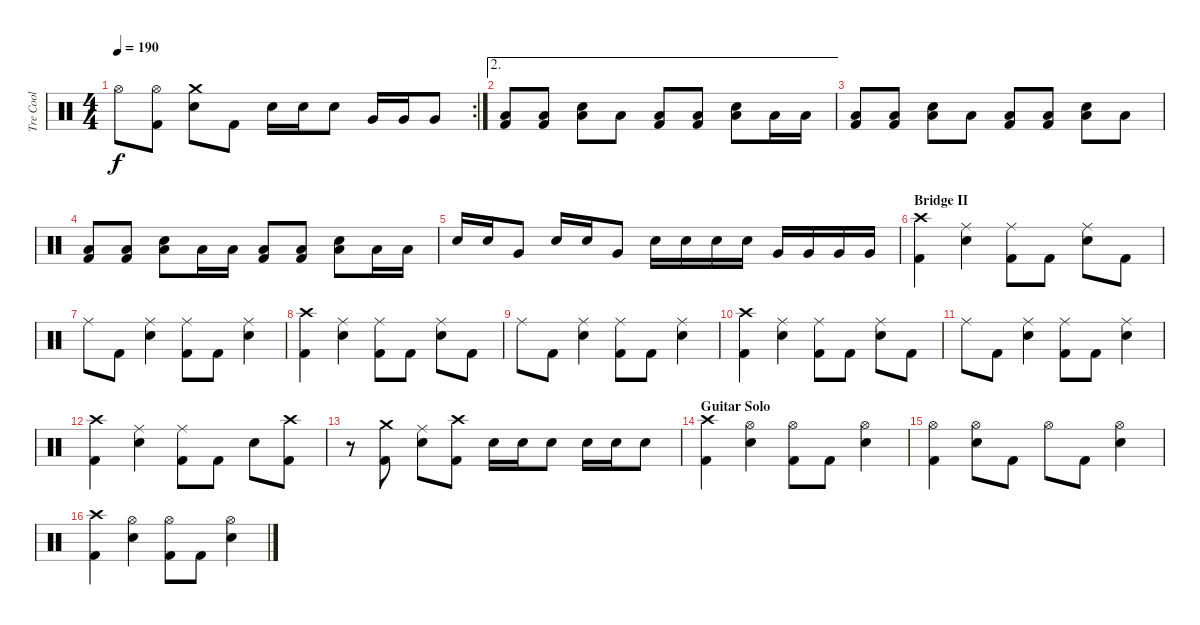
\track ("Tre Cool" "Tre Cool") {instrument percussion}
\staff {score}
\articulation defaults
\rc 2
\ts (4 4)
\tempo 190
\clef neutral
\ks c "Hi-Hat (open)".8{dy f}
("Hi-Hat (open)" "Kick (hit) 2").8 ("Crash medium (hit)" "Electric Snare (hit)").8 "Kick (hit) 2".8 "Snare (hit) 2".16 "Snare (hit) 2".16 "Snare (hit) 2".8 "Very Low Tom (hit)".16 "Very Low Tom (hit)".16 "Very Low Tom (hit)".8 |
\ae 2
("Low Tom (hit)" "Kick (hit) 2").8 ("Low Tom (hit)" "Kick (hit) 2").8 ("Low Tom (hit)" "Snare (hit) 2").8 "Low Tom (hit)".8 ("Low Tom (hit)" "Kick (hit) 2").8 ("Low Tom (hit)" "Kick (hit) 2").8 ("Low Tom (hit)" "Snare (hit) 2").8 "Low Tom (hit)".16 "Low Tom (hit)".16 |
("Low Tom (hit)" "Kick (hit) 2").8 ("Low Tom (hit)" "Kick (hit) 2").8 ("Low Tom (hit)" "Snare (hit) 2").8 "Low Tom (hit)".8 ("Low Tom (hit)" "Kick (hit) 2").8 ("Low Tom (hit)" "Kick (hit) 2").8 ("Low Tom (hit)" "Snare (hit) 2").8 "Low Tom (hit)".8 |
("Low Tom (hit)" "Kick (hit) 2").8 ("Low Tom (hit)" "Kick (hit) 2").8 ("Low Tom (hit)" "Snare (hit) 2").8 "Low Tom (hit)".16 "Low Tom (hit)".16 ("Low Tom (hit)" "Kick (hit) 2").8 ("Low Tom (hit)" "Kick (hit) 2").8 ("Low Tom (hit)" "Snare (hit) 2").8 "Low Tom (hit)".16 "Low Tom (hit)".16 |
"Snare (hit) 2".16 "Snare (hit) 2".16 "Very Low Tom (hit)".8 "Snare (hit) 2".16 "Snare (hit) 2".16 "Very Low Tom (hit)".8 "Snare (hit) 2".16 "Snare (hit) 2".16 "Snare (hit) 2".16 "Snare (hit) 2".16 "Very Low Tom (hit)".16 "Very Low Tom (hit)".16 "Very Low Tom (hit)".16 "Very Low Tom (hit)".16 |
\section ("" "Bridge II")
("Crash high (hit)" "Kick (hit) 2").4 ("Ride (middle)" "Snare (hit) 2").4 ("Ride (middle)" "Kick (hit) 2").8 "Kick (hit) 2".8 ("Ride (middle)" "Snare (hit) 2").8 "Kick (hit) 2".8 |
"Ride (middle)".8 "Kick (hit) 2".8 ("Ride (middle)" "Snare (hit) 2").4 ("Ride (middle)" "Kick (hit) 2").8 "Kick (hit) 2".8 ("Ride (middle)" "Snare (hit) 2").4 |
("Crash high (hit)" "Kick (hit) 2").4 ("Ride (middle)" "Snare (hit) 2").4 ("Ride (middle)" "Kick (hit) 2").8 "Kick (hit) 2".8 ("Ride (middle)" "Snare (hit) 2").8 "Kick (hit) 2".8 |
"Ride (middle)".8 "Kick (hit) 2".8 ("Ride (middle)" "Snare (hit) 2").4 ("Ride (middle)" "Kick (hit) 2").8 "Kick (hit) 2".8 ("Ride (middle)" "Snare (hit) 2").4 |
("Crash high (hit)" "Kick (hit) 2").4 ("Ride (middle)" "Snare (hit) 2").4 ("Ride (middle)" "Kick (hit) 2").8 "Kick (hit) 2".8 ("Ride (middle)" "Snare (hit) 2").8 "Kick (hit) 2".8 |
"Ride (middle)".8 "Kick (hit) 2".8 ("Ride (middle)" "Snare (hit) 2").4 ("Ride (middle)" "Kick (hit) 2").8 "Kick (hit) 2".8 ("Ride (middle)" "Snare (hit) 2").4 |
("Crash high (hit)" "Kick (hit) 2").4 ("Ride (middle)" "Snare (hit) 2").4 ("Ride (middle)" "Kick (hit) 2").8 "Kick (hit) 2".8 "Snare (hit) 2".8 ("Crash high (hit)" "Kick (hit) 2").8 |
r.8 ("Crash medium (hit)" "Kick (hit) 2").8 ("Ride (middle)" "Snare (hit) 2").8 ("Crash high (hit)" "Kick (hit) 2").8 "Snare (hit) 2".16 "Snare (hit) 2".16 "Snare (hit) 2".8 "Snare (hit) 2".16 "Snare (hit) 2".16 "Snare (hit) 2".8 |
\section ("" "Guitar Solo ")
("Crash high (hit)" "Kick (hit) 2").4 ("Hi-Hat (open)" "Snare (hit) 2").4 ("Hi-Hat (open)" "Kick (hit) 2").8 "Kick (hit) 2".8 ("Hi-Hat (open)" "Snare (hit) 2").4 |
("Hi-Hat (open)" "Kick (hit) 2").4 ("Hi-Hat (open)" "Snare (hit) 2").8 "Kick (hit) 2".8 "Hi-Hat (open)".8 "Kick (hit) 2".8 ("Hi-Hat (open)" "Snare (hit) 2").4 |
("Crash high (hit)" "Kick (hit) 2").4 ("Hi-Hat (open)" "Snare (hit) 2").4 ("Hi-Hat (open)" "Kick (hit) 2").8 "Kick (hit) 2".8 ("Hi-Hat (open)" "Snare (hit) 2").4
